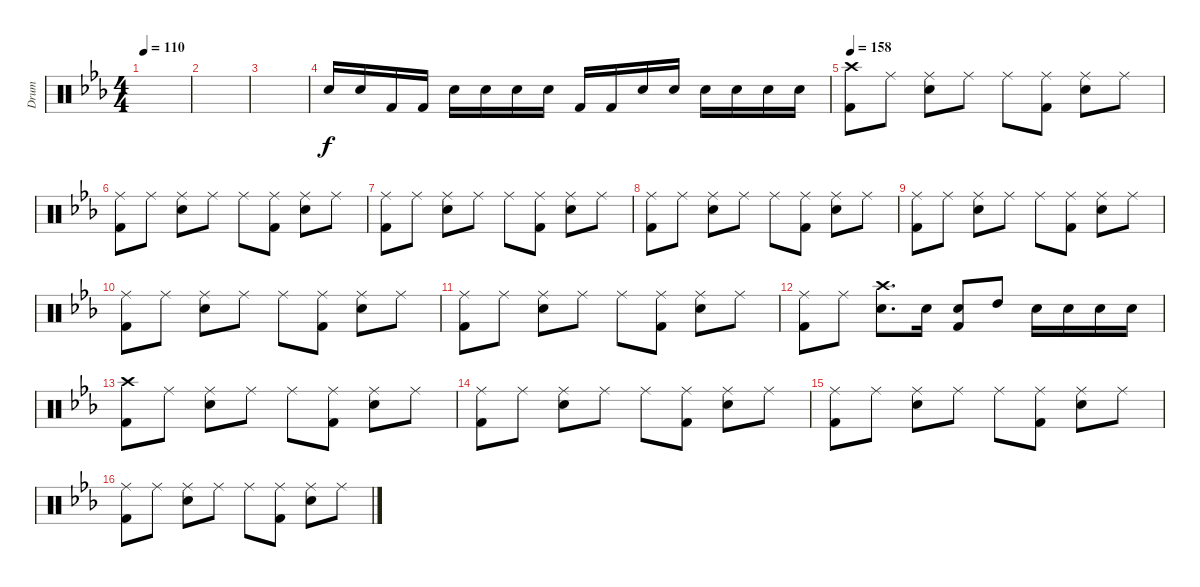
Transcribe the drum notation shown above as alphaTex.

\track ("Drum" "Drum") {instrument percussion}
\staff {score}
\articulation defaults
\ts (4 4)
\tempo 110
\clef neutral
\ks eb
|
|
|
"Electric Snare (hit)".16 "Electric Snare (hit)".16 "Kick (hit) 2".16 "Kick (hit) 2".16 "Electric Snare (hit)".16 "Electric Snare (hit)".16 "Electric Snare (hit)".16 "Electric Snare (hit)".16 "Kick (hit) 2".16 "Kick (hit) 2".16 "Electric Snare (hit)".16 "Electric Snare (hit)".16 "Electric Snare (hit)".16 "Electric Snare (hit)".16 "Electric Snare (hit)".16 "Electric Snare (hit)".16 |
\tempo 158
("Crash high (hit)" "Kick (hit) 2").8 "Ride (middle)".8 ("Ride (middle)" "Electric Snare (hit)").8 "Ride (middle)".8 "Ride (middle)".8 ("Ride (middle)" "Kick (hit) 2").8 ("Ride (middle)" "Electric Snare (hit)").8 "Ride (middle)".8 |
("Ride (middle)" "Kick (hit) 2").8 "Ride (middle)".8 ("Ride (middle)" "Electric Snare (hit)").8 "Ride (middle)".8 "Ride (middle)".8 ("Ride (middle)" "Kick (hit) 2").8 ("Ride (middle)" "Electric Snare (hit)").8 "Ride (middle)".8 |
("Ride (middle)" "Kick (hit) 2").8 "Ride (middle)".8 ("Ride (middle)" "Electric Snare (hit)").8 "Ride (middle)".8 "Ride (middle)".8 ("Ride (middle)" "Kick (hit) 2").8 ("Ride (middle)" "Electric Snare (hit)").8 "Ride (middle)".8 |
("Ride (middle)" "Kick (hit) 2").8 "Ride (middle)".8 ("Ride (middle)" "Electric Snare (hit)").8 "Ride (middle)".8 "Ride (middle)".8 ("Ride (middle)" "Kick (hit) 2").8 ("Ride (middle)" "Electric Snare (hit)").8 "Ride (middle)".8 |
("Ride (middle)" "Kick (hit) 2").8 "Ride (middle)".8 ("Ride (middle)" "Electric Snare (hit)").8 "Ride (middle)".8 "Ride (middle)".8 ("Ride (middle)" "Kick (hit) 2").8 ("Ride (middle)" "Electric Snare (hit)").8 "Ride (middle)".8 |
("Ride (middle)" "Kick (hit) 2").8 "Ride (middle)".8 ("Ride (middle)" "Electric Snare (hit)").8 "Ride (middle)".8 "Ride (middle)".8 ("Ride (middle)" "Kick (hit) 2").8 ("Ride (middle)" "Electric Snare (hit)").8 "Ride (middle)".8 |
("Ride (middle)" "Kick (hit) 2").8 "Ride (middle)".8 ("Ride (middle)" "Electric Snare (hit)").8 "Ride (middle)".8 "Ride (middle)".8 ("Ride (middle)" "Kick (hit) 2").8 ("Ride (middle)" "Electric Snare (hit)").8 "Ride (middle)".8 |
("Ride (middle)" "Kick (hit) 2").8 "Ride (middle)".8 ("Crash high (hit)" "Electric Snare (hit)").8{d} "Electric Snare (hit)".16 ("Electric Snare (hit)" "Kick (hit) 2").8 "High Tom (hit)".8 "Electric Snare (hit)".16 "Electric Snare (hit)".16 "Electric Snare (hit)".16 "Electric Snare (hit)".16 |
("Crash high (hit)" "Kick (hit) 2").8 "Ride (middle)".8 ("Ride (middle)" "Electric Snare (hit)").8 "Ride (middle)".8 "Ride (middle)".8 ("Ride (middle)" "Kick (hit) 2").8 ("Ride (middle)" "Electric Snare (hit)").8 "Ride (middle)".8 |
("Ride (middle)" "Kick (hit) 2").8 "Ride (middle)".8 ("Ride (middle)" "Electric Snare (hit)").8 "Ride (middle)".8 "Ride (middle)".8 ("Ride (middle)" "Kick (hit) 2").8 ("Ride (middle)" "Electric Snare (hit)").8 "Ride (middle)".8 |
("Ride (middle)" "Kick (hit) 2").8 "Ride (middle)".8 ("Ride (middle)" "Electric Snare (hit)").8 "Ride (middle)".8 "Ride (middle)".8 ("Ride (middle)" "Kick (hit) 2").8 ("Ride (middle)" "Electric Snare (hit)").8 "Ride (middle)".8 |
("Ride (middle)" "Kick (hit) 2").8 "Ride (middle)".8 ("Ride (middle)" "Electric Snare (hit)").8 "Ride (middle)".8 "Ride (middle)".8 ("Ride (middle)" "Kick (hit) 2").8 ("Ride (middle)" "Electric Snare (hit)").8 "Ride (middle)".8
